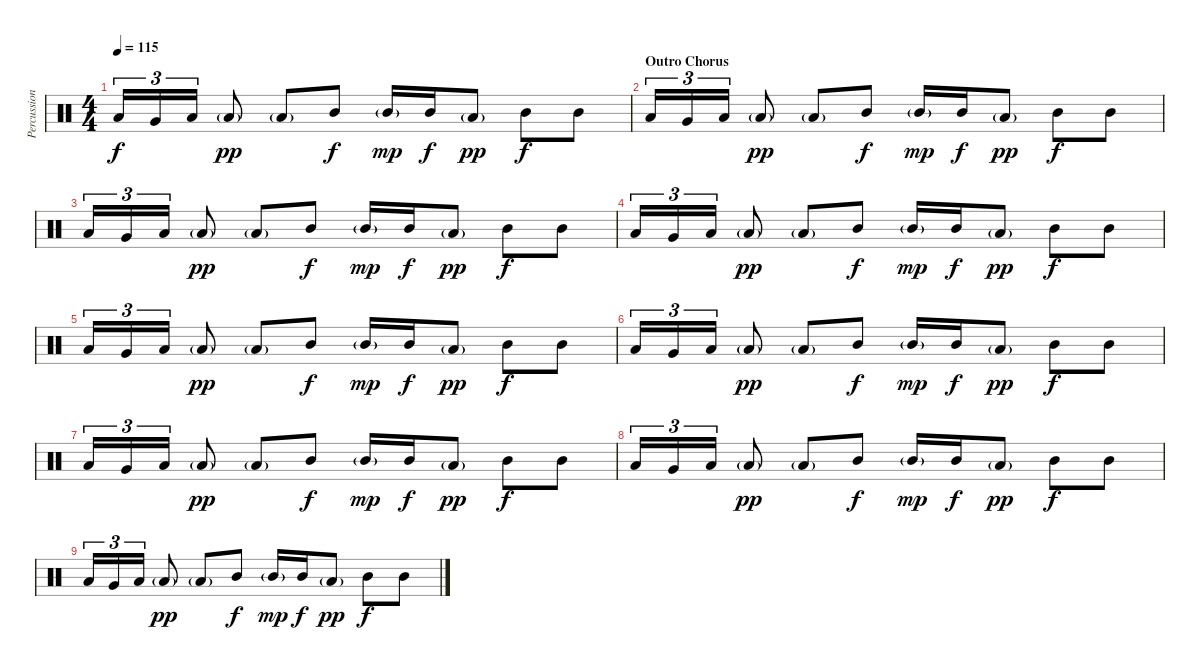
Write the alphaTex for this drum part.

\track ("Percussion - High Tom" "Percussion") {instrument percussion}
\staff {score}
\articulation defaults
\ts (4 4)
\tempo 115
\clef neutral
\ks c "Low Floor Tom (hit)".16{tu (3 2) dy f} "Very Low Tom (hit)".16{tu (3 2)} "Low Floor Tom (hit)".16{tu (3 2)} "Low Tom (hit)"{g}.8{dy pp} "Low Tom (hit)"{g}.8 "Mid Tom (hit)".8{dy f} "Mid Tom (hit)"{g}.16{dy mp} "Mid Tom (hit)".16{dy f} "Low Tom (hit)"{g}.8{dy pp} "Mid Tom (hit)".8{dy f} "Mid Tom (hit)".8
|
\section ("" "Outro Chorus")
"Low Floor Tom (hit)".16{tu (3 2)} "Very Low Tom (hit)".16{tu (3 2)} "Low Floor Tom (hit)".16{tu (3 2)} "Low Tom (hit)"{g}.8{dy pp} "Low Tom (hit)"{g}.8 "Mid Tom (hit)".8{dy f} "Mid Tom (hit)"{g}.16{dy mp} "Mid Tom (hit)".16{dy f} "Low Tom (hit)"{g}.8{dy pp} "Mid Tom (hit)".8{dy f} "Mid Tom (hit)".8 |
"Low Floor Tom (hit)".16{tu (3 2)} "Very Low Tom (hit)".16{tu (3 2)} "Low Floor Tom (hit)".16{tu (3 2)} "Low Tom (hit)"{g}.8{dy pp} "Low Tom (hit)"{g}.8 "Mid Tom (hit)".8{dy f} "Mid Tom (hit)"{g}.16{dy mp} "Mid Tom (hit)".16{dy f} "Low Tom (hit)"{g}.8{dy pp} "Mid Tom (hit)".8{dy f} "Mid Tom (hit)".8 |
"Low Floor Tom (hit)".16{tu (3 2)} "Very Low Tom (hit)".16{tu (3 2)} "Low Floor Tom (hit)".16{tu (3 2)} "Low Tom (hit)"{g}.8{dy pp} "Low Tom (hit)"{g}.8 "Mid Tom (hit)".8{dy f} "Mid Tom (hit)"{g}.16{dy mp} "Mid Tom (hit)".16{dy f} "Low Tom (hit)"{g}.8{dy pp} "Mid Tom (hit)".8{dy f} "Mid Tom (hit)".8 |
"Low Floor Tom (hit)".16{tu (3 2)} "Very Low Tom (hit)".16{tu (3 2)} "Low Floor Tom (hit)".16{tu (3 2)} "Low Tom (hit)"{g}.8{dy pp} "Low Tom (hit)"{g}.8 "Mid Tom (hit)".8{dy f} "Mid Tom (hit)"{g}.16{dy mp} "Mid Tom (hit)".16{dy f} "Low Tom (hit)"{g}.8{dy pp} "Mid Tom (hit)".8{dy f} "Mid Tom (hit)".8 |
"Low Floor Tom (hit)".16{tu (3 2)} "Very Low Tom (hit)".16{tu (3 2)} "Low Floor Tom (hit)".16{tu (3 2)} "Low Tom (hit)"{g}.8{dy pp} "Low Tom (hit)"{g}.8 "Mid Tom (hit)".8{dy f} "Mid Tom (hit)"{g}.16{dy mp} "Mid Tom (hit)".16{dy f} "Low Tom (hit)"{g}.8{dy pp} "Mid Tom (hit)".8{dy f} "Mid Tom (hit)".8 |
"Low Floor Tom (hit)".16{tu (3 2)} "Very Low Tom (hit)".16{tu (3 2)} "Low Floor Tom (hit)".16{tu (3 2)} "Low Tom (hit)"{g}.8{dy pp} "Low Tom (hit)"{g}.8 "Mid Tom (hit)".8{dy f} "Mid Tom (hit)"{g}.16{dy mp} "Mid Tom (hit)".16{dy f} "Low Tom (hit)"{g}.8{dy pp} "Mid Tom (hit)".8{dy f} "Mid Tom (hit)".8 |
"Low Floor Tom (hit)".16{tu (3 2)} "Very Low Tom (hit)".16{tu (3 2)} "Low Floor Tom (hit)".16{tu (3 2)} "Low Tom (hit)"{g}.8{dy pp} "Low Tom (hit)"{g}.8 "Mid Tom (hit)".8{dy f} "Mid Tom (hit)"{g}.16{dy mp} "Mid Tom (hit)".16{dy f} "Low Tom (hit)"{g}.8{dy pp} "Mid Tom (hit)".8{dy f} "Mid Tom (hit)".8 |
"Low Floor Tom (hit)".16{tu (3 2)} "Very Low Tom (hit)".16{tu (3 2)} "Low Floor Tom (hit)".16{tu (3 2)} "Low Tom (hit)"{g}.8{dy pp} "Low Tom (hit)"{g}.8 "Mid Tom (hit)".8{dy f} "Mid Tom (hit)"{g}.16{dy mp} "Mid Tom (hit)".16{dy f} "Low Tom (hit)"{g}.8{dy pp} "Mid Tom (hit)".8{dy f} "Mid Tom (hit)".8
